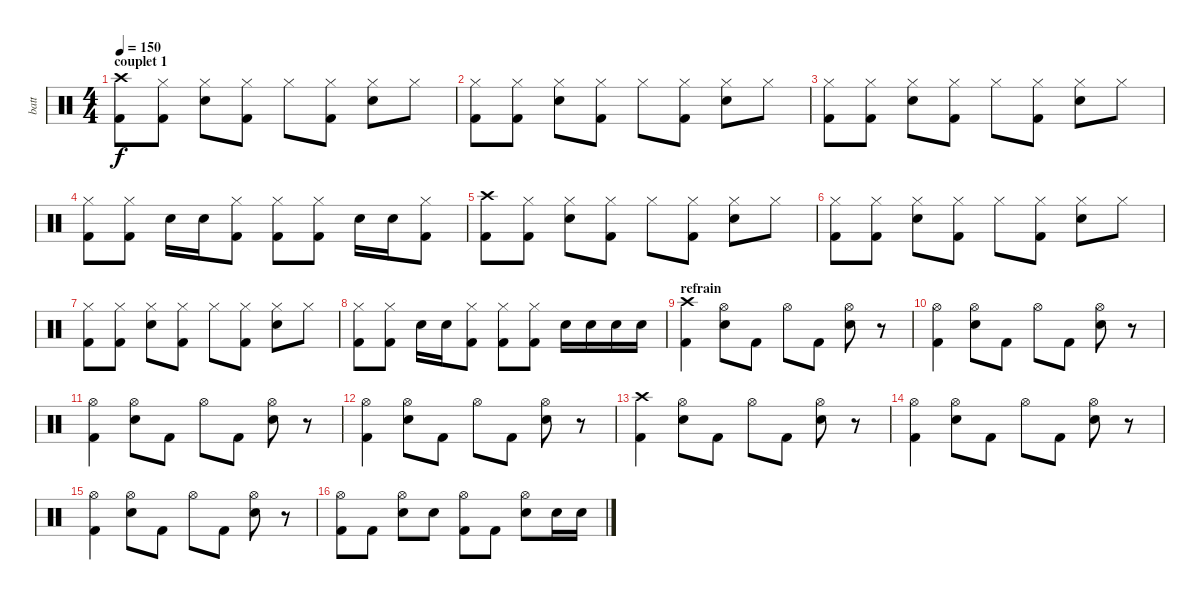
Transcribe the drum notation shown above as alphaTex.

\track ("batt" "batt") {instrument percussion}
\staff {score}
\articulation defaults
\ts (4 4)
\section ("" "couplet 1")
\tempo 150
\clef neutral
\ks c
("Crash high (hit)" "Kick (hit) 2").8{dy f} ("Hi-Hat (closed)" "Kick (hit) 2").8 ("Hi-Hat (closed)" "Electric Snare (hit)").8 ("Hi-Hat (closed)" "Kick (hit) 2").8 "Hi-Hat (closed)".8 ("Hi-Hat (closed)" "Kick (hit) 2").8 ("Hi-Hat (closed)" "Electric Snare (hit)").8 "Hi-Hat (closed)".8 |
("Hi-Hat (closed)" "Kick (hit) 2").8 ("Hi-Hat (closed)" "Kick (hit) 2").8 ("Hi-Hat (closed)" "Electric Snare (hit)").8 ("Hi-Hat (closed)" "Kick (hit) 2").8 "Hi-Hat (closed)".8 ("Hi-Hat (closed)" "Kick (hit) 2").8 ("Hi-Hat (closed)" "Electric Snare (hit)").8 "Hi-Hat (closed)".8 |
("Hi-Hat (closed)" "Kick (hit) 2").8 ("Hi-Hat (closed)" "Kick (hit) 2").8 ("Hi-Hat (closed)" "Electric Snare (hit)").8 ("Hi-Hat (closed)" "Kick (hit) 2").8 "Hi-Hat (closed)".8 ("Hi-Hat (closed)" "Kick (hit) 2").8 ("Hi-Hat (closed)" "Electric Snare (hit)").8 "Hi-Hat (closed)".8 |
("Hi-Hat (closed)" "Kick (hit) 2").8 ("Hi-Hat (closed)" "Kick (hit) 2").8 "Electric Snare (hit)".16 "Electric Snare (hit)".16 ("Hi-Hat (closed)" "Kick (hit) 2").8 ("Hi-Hat (closed)" "Kick (hit) 2").8 ("Hi-Hat (closed)" "Kick (hit) 2").8 "Electric Snare (hit)".16 "Electric Snare (hit)".16 ("Hi-Hat (closed)" "Kick (hit) 2").8 |
("Crash high (hit)" "Kick (hit) 2").8 ("Hi-Hat (closed)" "Kick (hit) 2").8 ("Hi-Hat (closed)" "Electric Snare (hit)").8 ("Hi-Hat (closed)" "Kick (hit) 2").8 "Hi-Hat (closed)".8 ("Hi-Hat (closed)" "Kick (hit) 2").8 ("Hi-Hat (closed)" "Electric Snare (hit)").8 "Hi-Hat (closed)".8 |
("Hi-Hat (closed)" "Kick (hit) 2").8 ("Hi-Hat (closed)" "Kick (hit) 2").8 ("Hi-Hat (closed)" "Electric Snare (hit)").8 ("Hi-Hat (closed)" "Kick (hit) 2").8 "Hi-Hat (closed)".8 ("Hi-Hat (closed)" "Kick (hit) 2").8 ("Hi-Hat (closed)" "Electric Snare (hit)").8 "Hi-Hat (closed)".8 |
("Hi-Hat (closed)" "Kick (hit) 2").8 ("Hi-Hat (closed)" "Kick (hit) 2").8 ("Hi-Hat (closed)" "Electric Snare (hit)").8 ("Hi-Hat (closed)" "Kick (hit) 2").8 "Hi-Hat (closed)".8 ("Hi-Hat (closed)" "Kick (hit) 2").8 ("Hi-Hat (closed)" "Electric Snare (hit)").8 "Hi-Hat (closed)".8 |
("Hi-Hat (closed)" "Kick (hit) 2").8 ("Hi-Hat (closed)" "Kick (hit) 2").8 "Electric Snare (hit)".16 "Electric Snare (hit)".16 ("Hi-Hat (closed)" "Kick (hit) 2").8 ("Hi-Hat (closed)" "Kick (hit) 2").8 ("Hi-Hat (closed)" "Kick (hit) 2").8 "Electric Snare (hit)".16 "Electric Snare (hit)".16 "Electric Snare (hit)".16 "Electric Snare (hit)".16 |
\section ("" "refrain")
("Crash high (hit)" "Kick (hit) 2").4 ("Hi-Hat (open)" "Electric Snare (hit)").8 "Kick (hit) 2".8 "Hi-Hat (open)".8 "Kick (hit) 2".8 ("Hi-Hat (open)" "Electric Snare (hit)").8 r.8 |
("Hi-Hat (open)" "Kick (hit) 2").4 ("Hi-Hat (open)" "Electric Snare (hit)").8 "Kick (hit) 2".8 "Hi-Hat (open)".8 "Kick (hit) 2".8 ("Hi-Hat (open)" "Electric Snare (hit)").8 r.8 |
("Hi-Hat (open)" "Kick (hit) 2").4 ("Hi-Hat (open)" "Electric Snare (hit)").8 "Kick (hit) 2".8 "Hi-Hat (open)".8 "Kick (hit) 2".8 ("Hi-Hat (open)" "Electric Snare (hit)").8 r.8 |
("Hi-Hat (open)" "Kick (hit) 2").4 ("Hi-Hat (open)" "Electric Snare (hit)").8 "Kick (hit) 2".8 "Hi-Hat (open)".8 "Kick (hit) 2".8 ("Hi-Hat (open)" "Electric Snare (hit)").8 r.8 |
("Crash high (hit)" "Kick (hit) 2").4 ("Hi-Hat (open)" "Electric Snare (hit)").8 "Kick (hit) 2".8 "Hi-Hat (open)".8 "Kick (hit) 2".8 ("Hi-Hat (open)" "Electric Snare (hit)").8 r.8 |
("Hi-Hat (open)" "Kick (hit) 2").4 ("Hi-Hat (open)" "Electric Snare (hit)").8 "Kick (hit) 2".8 "Hi-Hat (open)".8 "Kick (hit) 2".8 ("Hi-Hat (open)" "Electric Snare (hit)").8 r.8 |
("Hi-Hat (open)" "Kick (hit) 2").4 ("Hi-Hat (open)" "Electric Snare (hit)").8 "Kick (hit) 2".8 "Hi-Hat (open)".8 "Kick (hit) 2".8 ("Hi-Hat (open)" "Electric Snare (hit)").8 r.8 |
("Hi-Hat (open)" "Kick (hit) 2").8 "Kick (hit) 2".8 ("Hi-Hat (open)" "Electric Snare (hit)").8 "Electric Snare (hit)".8 ("Hi-Hat (open)" "Kick (hit) 2").8 "Kick (hit) 2".8 ("Hi-Hat (open)" "Electric Snare (hit)").8 "Electric Snare (hit)".16 "Electric Snare (hit)".16
